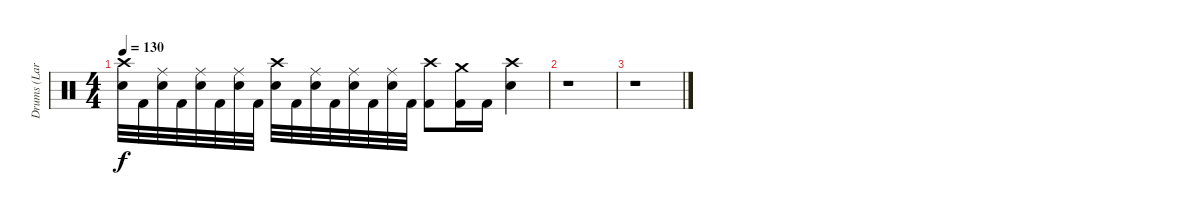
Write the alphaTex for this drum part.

\track ("Drums (Lars)" "Drums (Lar") {instrument percussion}
\staff {score}
\articulation defaults
\ts (4 4)
\tempo 130
\clef neutral
\ks c
("Crash high (hit)" "Snare (hit) 2").32{dy f} "Kick (hit) 2".32 ("Ride (middle)" "Snare (hit) 2").32 "Kick (hit) 2".32 ("Ride (middle)" "Snare (hit) 2").32 "Kick (hit) 2".32 ("Ride (middle)" "Snare (hit) 2").32 "Kick (hit) 2".32 ("Crash high (hit)" "Snare (hit) 2").32 "Kick (hit) 2".32 ("Ride (middle)" "Snare (hit) 2").32 "Kick (hit) 2".32 ("Ride (middle)" "Snare (hit) 2").32 "Kick (hit) 2".32 ("Ride (middle)" "Snare (hit) 2").32 "Kick (hit) 2".32 ("Crash high (hit)" "Kick (hit) 2").8 ("Crash medium (hit)" "Kick (hit) 2").16 "Kick (hit) 2".16 ("Crash high (hit)" "Snare (hit) 2").4 |
r.1 |
r.1
